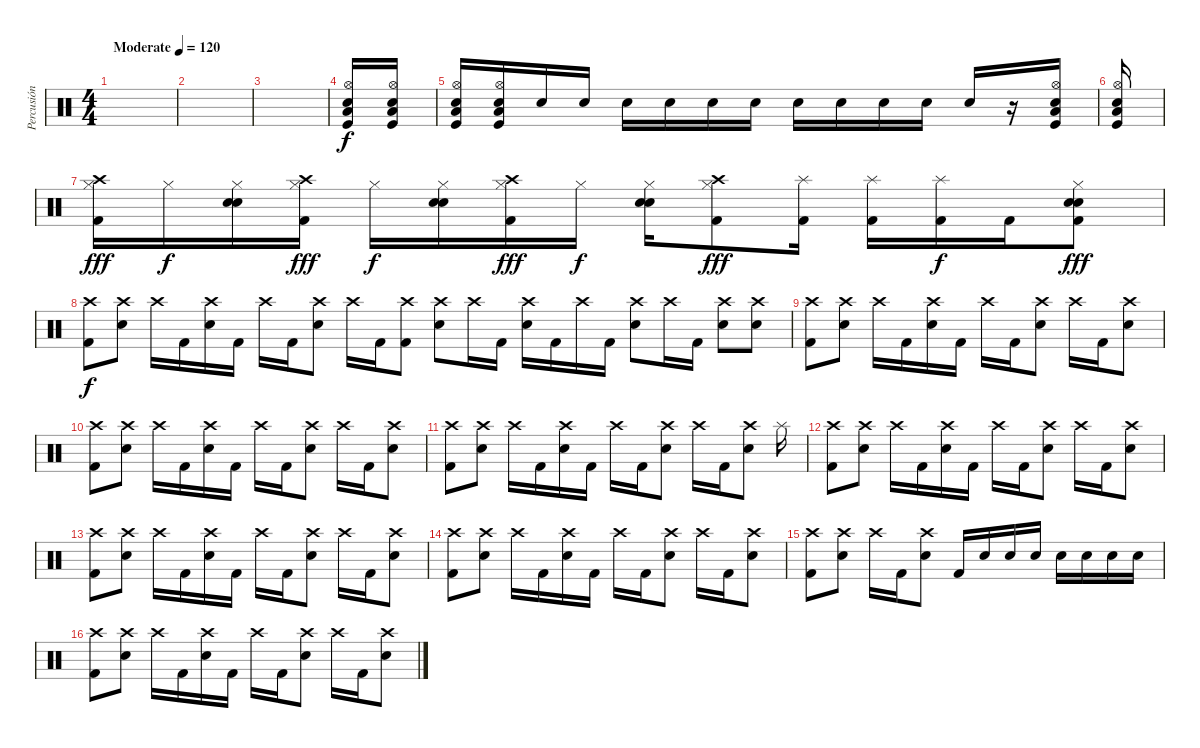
\track ("Percusión" "Percusión") {instrument percussion}
\staff {score}
\articulation defaults
\ts (4 4)
\tempo (120 "Moderate")
\clef neutral
\ks c
|
|
|
("Low Tom (hit)" "Hi-Hat (open)" "Electric Snare (hit)" "Kick (hit)").16 ("Low Tom (hit)" "Hi-Hat (open)" "Electric Snare (hit)" "Kick (hit)").16 |
("Low Tom (hit)" "Hi-Hat (open)" "Electric Snare (hit)" "Kick (hit)").16 ("Low Tom (hit)" "Hi-Hat (open)" "Electric Snare (hit)" "Kick (hit)").16 "Snare (hit)".16 "Snare (hit)".16 "Snare (hit)".16 "Snare (hit)".16 "Snare (hit)".16 "Snare (hit)".16 "Snare (hit)".16 "Snare (hit)".16 "Snare (hit)".16 "Snare (hit)".16 "Snare (hit)".16 r.16 ("Low Tom (hit)" "Hi-Hat (open)" "Electric Snare (hit)" "Kick (hit)").16 |
("Low Tom (hit)" "Hi-Hat (open)" "Electric Snare (hit)" "Kick (hit)").16 |
("Crash high (hit)" "Hi-Hat (closed)" "Kick (hit) 2").16{dy fff} "Hi-Hat (closed)".16{dy f} ("Hi-Hat (closed)" "Electric Snare (hit)" "Snare (hit) 2").16 ("Crash high (hit)" "Hi-Hat (closed)" "Kick (hit) 2").16{dy fff} "Hi-Hat (closed)".16{dy f} ("Hi-Hat (closed)" "Electric Snare (hit)" "Snare (hit) 2").16 ("Crash high (hit)" "Hi-Hat (closed)" "Kick (hit) 2").16{dy fff} "Hi-Hat (closed)".16{dy f} ("Hi-Hat (closed)" "Electric Snare (hit)" "Snare (hit) 2").16 ("Crash high (hit)" "Hi-Hat (closed)" "Kick (hit) 2").8{dy fff} ("Splash (hit)" "Kick (hit) 2").16 ("Splash (hit)" "Kick (hit) 2").16 ("Splash (hit)" "Kick (hit) 2").16{dy f} "Kick (hit) 2".16 ("Hi-Hat (closed)" "Electric Snare (hit)" "Snare (hit) 2" "Kick (hit) 2").8{dy fff} |
("Crash high (hit)" "Kick (hit) 2").8{dy f} ("Crash high (hit)" "Electric Snare (hit)").8 "Crash high (hit)".16 "Kick (hit) 2".16 ("Crash high (hit)" "Electric Snare (hit)").16 "Kick (hit) 2".16 "Crash high (hit)".16 "Kick (hit) 2".16 ("Crash high (hit)" "Electric Snare (hit)").8 "Crash high (hit)".16 "Kick (hit) 2".16 ("Crash high (hit)" "Kick (hit) 2").8 ("Crash high (hit)" "Electric Snare (hit)").8 "Crash high (hit)".16 "Kick (hit) 2".16 ("Crash high (hit)" "Electric Snare (hit)").16 "Kick (hit) 2".16 "Crash high (hit)".16 "Kick (hit) 2".16 ("Crash high (hit)" "Electric Snare (hit)").8 "Crash high (hit)".16 "Kick (hit) 2".16 ("Crash high (hit)" "Electric Snare (hit)").8 ("Crash high (hit)" "Electric Snare (hit)").8 |
("Crash high (hit)" "Kick (hit) 2").8 ("Crash high (hit)" "Electric Snare (hit)").8 "Crash high (hit)".16 "Kick (hit) 2".16 ("Crash high (hit)" "Electric Snare (hit)").16 "Kick (hit) 2".16 "Crash high (hit)".16 "Kick (hit) 2".16 ("Crash high (hit)" "Electric Snare (hit)").8 "Crash high (hit)".16 "Kick (hit) 2".16 ("Crash high (hit)" "Electric Snare (hit)").8 |
("Crash high (hit)" "Kick (hit) 2").8 ("Crash high (hit)" "Electric Snare (hit)").8 "Crash high (hit)".16 "Kick (hit) 2".16 ("Crash high (hit)" "Electric Snare (hit)").16 "Kick (hit) 2".16 "Crash high (hit)".16 "Kick (hit) 2".16 ("Crash high (hit)" "Electric Snare (hit)").8 "Crash high (hit)".16 "Kick (hit) 2".16 ("Crash high (hit)" "Electric Snare (hit)").8 |
("Crash high (hit)" "Kick (hit) 2").8 ("Crash high (hit)" "Electric Snare (hit)").8 "Crash high (hit)".16 "Kick (hit) 2".16 ("Crash high (hit)" "Electric Snare (hit)").16 "Kick (hit) 2".16 "Crash high (hit)".16 "Kick (hit) 2".16 ("Crash high (hit)" "Electric Snare (hit)").8 "Crash high (hit)".16 "Kick (hit) 2".16 ("Crash high (hit)" "Electric Snare (hit)").8 "Splash (hit)".16 |
("Crash high (hit)" "Kick (hit) 2").8 ("Crash high (hit)" "Electric Snare (hit)").8 "Crash high (hit)".16 "Kick (hit) 2".16 ("Crash high (hit)" "Electric Snare (hit)").16 "Kick (hit) 2".16 "Crash high (hit)".16 "Kick (hit) 2".16 ("Crash high (hit)" "Electric Snare (hit)").8 "Crash high (hit)".16 "Kick (hit) 2".16 ("Crash high (hit)" "Electric Snare (hit)").8 |
("Crash high (hit)" "Kick (hit) 2").8 ("Crash high (hit)" "Electric Snare (hit)").8 "Crash high (hit)".16 "Kick (hit) 2".16 ("Crash high (hit)" "Electric Snare (hit)").16 "Kick (hit) 2".16 "Crash high (hit)".16 "Kick (hit) 2".16 ("Crash high (hit)" "Electric Snare (hit)").8 "Crash high (hit)".16 "Kick (hit) 2".16 ("Crash high (hit)" "Electric Snare (hit)").8 |
("Crash high (hit)" "Kick (hit) 2").8 ("Crash high (hit)" "Electric Snare (hit)").8 "Crash high (hit)".16 "Kick (hit) 2".16 ("Crash high (hit)" "Electric Snare (hit)").16 "Kick (hit) 2".16 "Crash high (hit)".16 "Kick (hit) 2".16 ("Crash high (hit)" "Electric Snare (hit)").8 "Crash high (hit)".16 "Kick (hit) 2".16 ("Crash high (hit)" "Electric Snare (hit)").8 |
("Crash high (hit)" "Kick (hit) 2").8 ("Crash high (hit)" "Electric Snare (hit)").8 "Crash high (hit)".16 "Kick (hit) 2".16 ("Crash high (hit)" "Electric Snare (hit)").8 "Kick (hit) 2".16 "Electric Snare (hit)".16 "Electric Snare (hit)".16 "Electric Snare (hit)".16 "Electric Snare (hit)".16 "Electric Snare (hit)".16 "Electric Snare (hit)".16 "Electric Snare (hit)".16 |
("Crash high (hit)" "Kick (hit) 2").8 ("Crash high (hit)" "Electric Snare (hit)").8 "Crash high (hit)".16 "Kick (hit) 2".16 ("Crash high (hit)" "Electric Snare (hit)").16 "Kick (hit) 2".16 "Crash high (hit)".16 "Kick (hit) 2".16 ("Crash high (hit)" "Electric Snare (hit)").8 "Crash high (hit)".16 "Kick (hit) 2".16 ("Crash high (hit)" "Electric Snare (hit)").8
